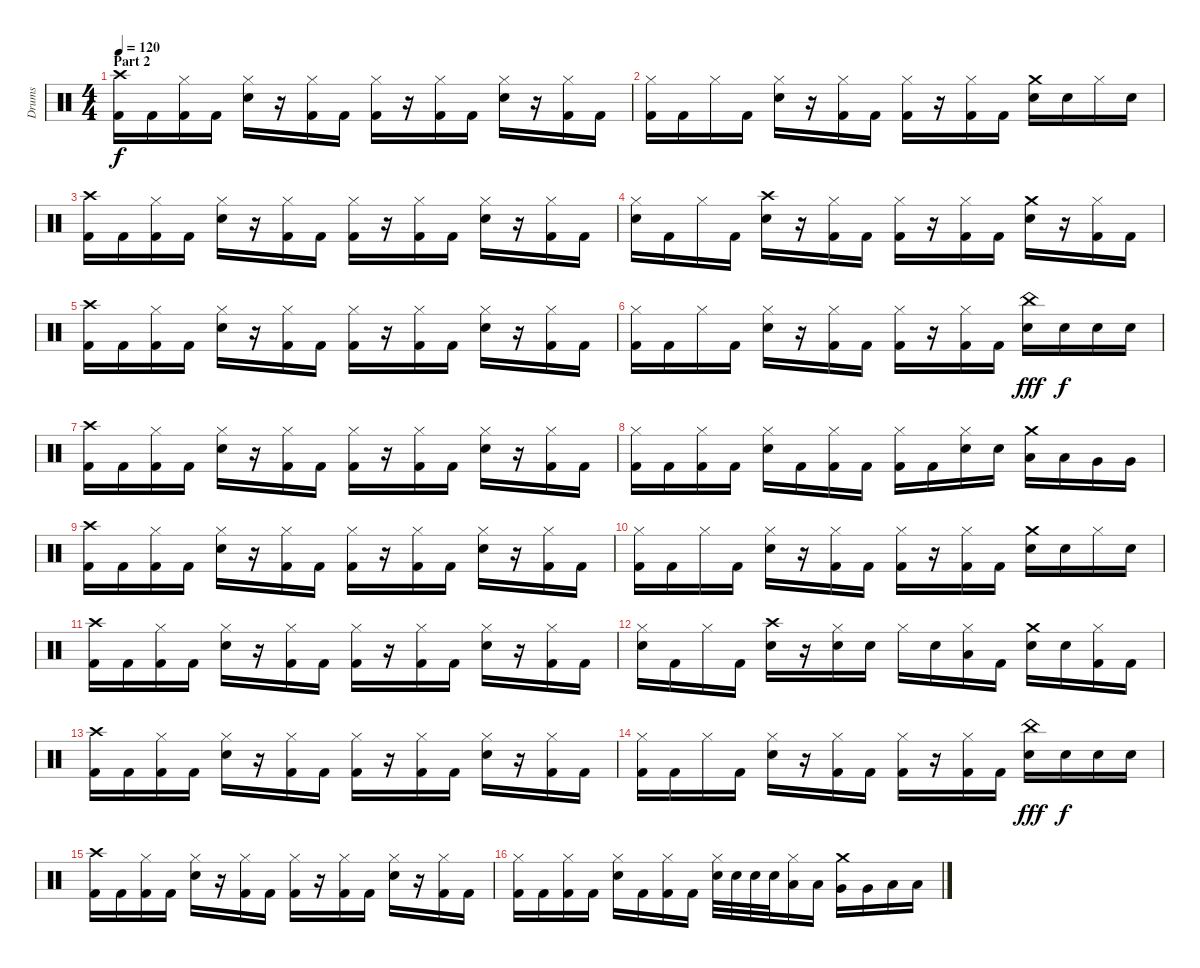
\track ("Drums" "Drums") {instrument percussion}
\staff {score}
\articulation defaults
\ts (4 4)
\section ("" "Part 2")
\tempo 120
\clef neutral
\ks c
("Crash high (hit)" "Kick (hit) 2").16{dy f} "Kick (hit) 2".16 ("Hi-Hat (closed)" "Kick (hit) 2").16 "Kick (hit) 2".16 ("Hi-Hat (closed)" "Snare (hit) 2").16 r.16 ("Hi-Hat (closed)" "Kick (hit) 2").16 "Kick (hit) 2".16 ("Hi-Hat (closed)" "Kick (hit) 2").16 r.16 ("Hi-Hat (closed)" "Kick (hit) 2").16 "Kick (hit) 2".16 ("Hi-Hat (closed)" "Snare (hit) 2").16 r.16 ("Hi-Hat (closed)" "Kick (hit) 2").16 "Kick (hit) 2".16 |
("Hi-Hat (closed)" "Kick (hit) 2").16 "Kick (hit) 2".16 "Hi-Hat (closed)".16 "Kick (hit) 2".16 ("Hi-Hat (closed)" "Snare (hit) 2").16 r.16 ("Hi-Hat (closed)" "Kick (hit) 2").16 "Kick (hit) 2".16 ("Hi-Hat (closed)" "Kick (hit) 2").16 r.16 ("Hi-Hat (closed)" "Kick (hit) 2").16 "Kick (hit) 2".16 ("Crash medium (hit)" "Snare (hit) 2").16 "Snare (hit) 2".16 "Hi-Hat (closed)".16 "Snare (hit) 2".16 |
("Crash high (hit)" "Kick (hit) 2").16 "Kick (hit) 2".16 ("Hi-Hat (closed)" "Kick (hit) 2").16 "Kick (hit) 2".16 ("Hi-Hat (closed)" "Snare (hit) 2").16 r.16 ("Hi-Hat (closed)" "Kick (hit) 2").16 "Kick (hit) 2".16 ("Hi-Hat (closed)" "Kick (hit) 2").16 r.16 ("Hi-Hat (closed)" "Kick (hit) 2").16 "Kick (hit) 2".16 ("Hi-Hat (closed)" "Snare (hit) 2").16 r.16 ("Hi-Hat (closed)" "Kick (hit) 2").16 "Kick (hit) 2".16 |
("Hi-Hat (closed)" "Snare (hit) 2").16 "Kick (hit) 2".16 "Hi-Hat (closed)".16 "Kick (hit) 2".16 ("Crash high (hit)" "Snare (hit) 2").16 r.16 ("Hi-Hat (closed)" "Kick (hit) 2").16 "Kick (hit) 2".16 ("Hi-Hat (closed)" "Kick (hit) 2").16 r.16 ("Hi-Hat (closed)" "Kick (hit) 2").16 "Kick (hit) 2".16 ("Crash medium (hit)" "Snare (hit) 2").16 r.16 ("Hi-Hat (closed)" "Kick (hit) 2").16 "Kick (hit) 2".16 |
("Crash high (hit)" "Kick (hit) 2").16 "Kick (hit) 2".16 ("Hi-Hat (closed)" "Kick (hit) 2").16 "Kick (hit) 2".16 ("Hi-Hat (closed)" "Snare (hit) 2").16 r.16 ("Hi-Hat (closed)" "Kick (hit) 2").16 "Kick (hit) 2".16 ("Hi-Hat (closed)" "Kick (hit) 2").16 r.16 ("Hi-Hat (closed)" "Kick (hit) 2").16 "Kick (hit) 2".16 ("Hi-Hat (closed)" "Snare (hit) 2").16 r.16 ("Hi-Hat (closed)" "Kick (hit) 2").16 "Kick (hit) 2".16 |
("Hi-Hat (closed)" "Kick (hit) 2").16 "Kick (hit) 2".16 "Hi-Hat (closed)".16 "Kick (hit) 2".16 ("Hi-Hat (closed)" "Snare (hit) 2").16 r.16 ("Hi-Hat (closed)" "Kick (hit) 2").16 "Kick (hit) 2".16 ("Hi-Hat (closed)" "Kick (hit) 2").16 r.16 ("Hi-Hat (closed)" "Kick (hit) 2").16 "Kick (hit) 2".16 ("China (hit)" "Snare (hit) 2").16{dy fff} "Snare (hit) 2".16{dy f} "Snare (hit) 2".16 "Snare (hit) 2".16 |
("Crash high (hit)" "Kick (hit) 2").16 "Kick (hit) 2".16 ("Hi-Hat (closed)" "Kick (hit) 2").16 "Kick (hit) 2".16 ("Hi-Hat (closed)" "Snare (hit) 2").16 r.16 ("Hi-Hat (closed)" "Kick (hit) 2").16 "Kick (hit) 2".16 ("Hi-Hat (closed)" "Kick (hit) 2").16 r.16 ("Hi-Hat (closed)" "Kick (hit) 2").16 "Kick (hit) 2".16 ("Hi-Hat (closed)" "Snare (hit) 2").16 r.16 ("Hi-Hat (closed)" "Kick (hit) 2").16 "Kick (hit) 2".16 |
("Hi-Hat (closed)" "Kick (hit) 2").16 "Kick (hit) 2".16 ("Hi-Hat (closed)" "Kick (hit) 2").16 "Kick (hit) 2".16 ("Hi-Hat (closed)" "Snare (hit) 2").16 "Kick (hit) 2".16 ("Hi-Hat (closed)" "Kick (hit) 2").16 "Kick (hit) 2".16 ("Hi-Hat (closed)" "Kick (hit) 2").16 "Kick (hit) 2".16 ("Hi-Hat (closed)" "Snare (hit) 2").16 "Snare (hit) 2".16 ("Crash medium (hit)" "Low Tom (hit)").16 "Low Tom (hit)".16 "Very Low Tom (hit)".16 "Very Low Tom (hit)".16 |
("Crash high (hit)" "Kick (hit) 2").16 "Kick (hit) 2".16 ("Hi-Hat (closed)" "Kick (hit) 2").16 "Kick (hit) 2".16 ("Hi-Hat (closed)" "Snare (hit) 2").16 r.16 ("Hi-Hat (closed)" "Kick (hit) 2").16 "Kick (hit) 2".16 ("Hi-Hat (closed)" "Kick (hit) 2").16 r.16 ("Hi-Hat (closed)" "Kick (hit) 2").16 "Kick (hit) 2".16 ("Hi-Hat (closed)" "Snare (hit) 2").16 r.16 ("Hi-Hat (closed)" "Kick (hit) 2").16 "Kick (hit) 2".16 |
("Hi-Hat (closed)" "Kick (hit) 2").16 "Kick (hit) 2".16 "Hi-Hat (closed)".16 "Kick (hit) 2".16 ("Hi-Hat (closed)" "Snare (hit) 2").16 r.16 ("Hi-Hat (closed)" "Kick (hit) 2").16 "Kick (hit) 2".16 ("Hi-Hat (closed)" "Kick (hit) 2").16 r.16 ("Hi-Hat (closed)" "Kick (hit) 2").16 "Kick (hit) 2".16 ("Crash medium (hit)" "Snare (hit) 2").16 "Snare (hit) 2".16 "Hi-Hat (closed)".16 "Snare (hit) 2".16 |
("Crash high (hit)" "Kick (hit) 2").16 "Kick (hit) 2".16 ("Hi-Hat (closed)" "Kick (hit) 2").16 "Kick (hit) 2".16 ("Hi-Hat (closed)" "Snare (hit) 2").16 r.16 ("Hi-Hat (closed)" "Kick (hit) 2").16 "Kick (hit) 2".16 ("Hi-Hat (closed)" "Kick (hit) 2").16 r.16 ("Hi-Hat (closed)" "Kick (hit) 2").16 "Kick (hit) 2".16 ("Hi-Hat (closed)" "Snare (hit) 2").16 r.16 ("Hi-Hat (closed)" "Kick (hit) 2").16 "Kick (hit) 2".16 |
("Hi-Hat (closed)" "Snare (hit) 2").16 "Kick (hit) 2".16 "Hi-Hat (closed)".16 "Kick (hit) 2".16 ("Crash high (hit)" "Snare (hit) 2").16 r.16 ("Hi-Hat (closed)" "Snare (hit) 2").16 "Snare (hit) 2".16 "Hi-Hat (closed)".16 "Snare (hit) 2".16 ("Hi-Hat (closed)" "Low Tom (hit)").16 "Kick (hit) 2".16 ("Crash medium (hit)" "Snare (hit) 2").16 "Snare (hit) 2".16 ("Hi-Hat (closed)" "Kick (hit) 2").16 "Kick (hit) 2".16 |
("Crash high (hit)" "Kick (hit) 2").16 "Kick (hit) 2".16 ("Hi-Hat (closed)" "Kick (hit) 2").16 "Kick (hit) 2".16 ("Hi-Hat (closed)" "Snare (hit) 2").16 r.16 ("Hi-Hat (closed)" "Kick (hit) 2").16 "Kick (hit) 2".16 ("Hi-Hat (closed)" "Kick (hit) 2").16 r.16 ("Hi-Hat (closed)" "Kick (hit) 2").16 "Kick (hit) 2".16 ("Hi-Hat (closed)" "Snare (hit) 2").16 r.16 ("Hi-Hat (closed)" "Kick (hit) 2").16 "Kick (hit) 2".16 |
("Hi-Hat (closed)" "Kick (hit) 2").16 "Kick (hit) 2".16 "Hi-Hat (closed)".16 "Kick (hit) 2".16 ("Hi-Hat (closed)" "Snare (hit) 2").16 r.16 ("Hi-Hat (closed)" "Kick (hit) 2").16 "Kick (hit) 2".16 ("Hi-Hat (closed)" "Kick (hit) 2").16 r.16 ("Hi-Hat (closed)" "Kick (hit) 2").16 "Kick (hit) 2".16 ("China (hit)" "Snare (hit) 2").16{dy fff} "Snare (hit) 2".16{dy f} "Snare (hit) 2".16 "Snare (hit) 2".16 |
("Crash high (hit)" "Kick (hit) 2").16 "Kick (hit) 2".16 ("Hi-Hat (closed)" "Kick (hit) 2").16 "Kick (hit) 2".16 ("Hi-Hat (closed)" "Snare (hit) 2").16 r.16 ("Hi-Hat (closed)" "Kick (hit) 2").16 "Kick (hit) 2".16 ("Hi-Hat (closed)" "Kick (hit) 2").16 r.16 ("Hi-Hat (closed)" "Kick (hit) 2").16 "Kick (hit) 2".16 ("Hi-Hat (closed)" "Snare (hit) 2").16 r.16 ("Hi-Hat (closed)" "Kick (hit) 2").16 "Kick (hit) 2".16 |
("Hi-Hat (closed)" "Kick (hit) 2").16 "Kick (hit) 2".16 ("Hi-Hat (closed)" "Kick (hit) 2").16 "Kick (hit) 2".16 ("Hi-Hat (closed)" "Snare (hit) 2").16 "Kick (hit) 2".16 ("Hi-Hat (closed)" "Kick (hit) 2").16 "Kick (hit) 2".16 ("Hi-Hat (closed)" "Snare (hit) 2").32 "Snare (hit) 2".32 "Snare (hit) 2".32 "Snare (hit) 2".32 ("Hi-Hat (closed)" "Low Tom (hit)").16 "Low Tom (hit)".16 ("Crash medium (hit)" "Very Low Tom (hit)").16 "Very Low Tom (hit)".16 "Low Floor Tom (hit)".16 "Low Floor Tom (hit)".16
